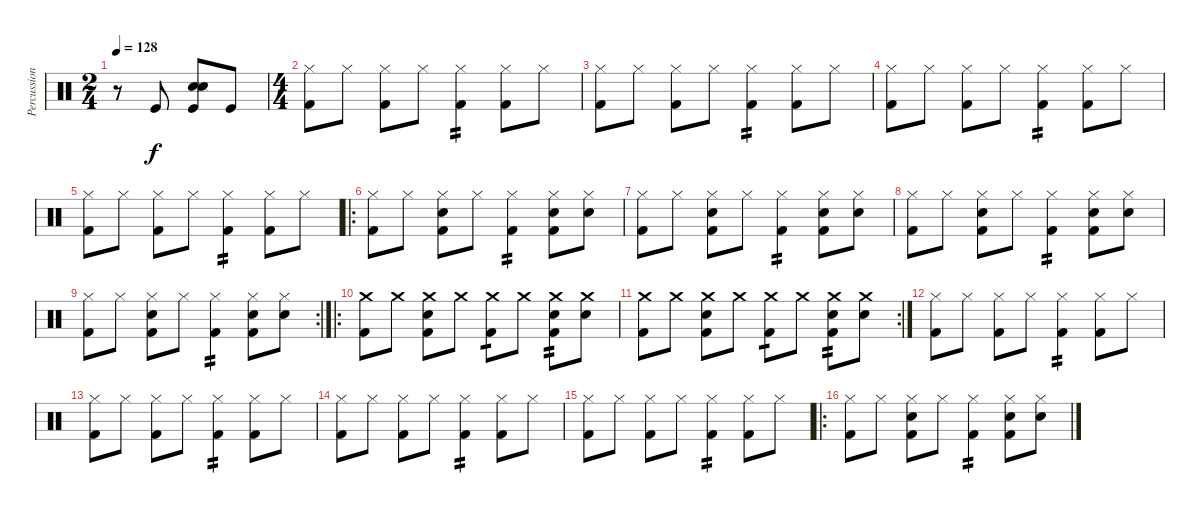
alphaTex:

\track ("Percussion" "Percussion") {instrument percussion}
\staff {score}
\articulation defaults
\ts (2 4)
\tempo 128
\clef neutral
\ks c
r.8{dy f} "Kick (hit)".8 ("Hand Clap (hit)" "Snare (hit) 2" "Snare (side stick) 3" "Kick (hit)").8 "Kick (hit)".8 |
\ts (4 4)
("Hi-Hat (closed)" "Kick (hit) 2").8 "Hi-Hat (closed)".8 ("Hi-Hat (closed)" "Kick (hit) 2").8 "Hi-Hat (closed)".8 ("Hi-Hat (closed)" "Kick (hit) 2").4{tp 2} ("Hi-Hat (closed)" "Kick (hit) 2").8 "Hi-Hat (closed)".8 |
("Hi-Hat (closed)" "Kick (hit) 2").8 "Hi-Hat (closed)".8 ("Hi-Hat (closed)" "Kick (hit) 2").8 "Hi-Hat (closed)".8 ("Hi-Hat (closed)" "Kick (hit) 2").4{tp 2} ("Hi-Hat (closed)" "Kick (hit) 2").8 "Hi-Hat (closed)".8 |
("Hi-Hat (closed)" "Kick (hit) 2").8 "Hi-Hat (closed)".8 ("Hi-Hat (closed)" "Kick (hit) 2").8 "Hi-Hat (closed)".8 ("Hi-Hat (closed)" "Kick (hit) 2").4{tp 2} ("Hi-Hat (closed)" "Kick (hit) 2").8 "Hi-Hat (closed)".8 |
("Hi-Hat (closed)" "Kick (hit) 2").8 "Hi-Hat (closed)".8 ("Hi-Hat (closed)" "Kick (hit) 2").8 "Hi-Hat (closed)".8 ("Hi-Hat (closed)" "Kick (hit) 2").4{tp 2} ("Hi-Hat (closed)" "Kick (hit) 2").8 "Hi-Hat (closed)".8 |
\ro
("Hi-Hat (closed)" "Kick (hit) 2").8 "Hi-Hat (closed)".8 ("Hi-Hat (closed)" "Snare (hit) 2" "Kick (hit) 2").8 "Hi-Hat (closed)".8 ("Hi-Hat (closed)" "Kick (hit) 2").4{tp 2} ("Hi-Hat (closed)" "Snare (hit) 2"{tr (38 16)} "Kick (hit) 2").8 ("Hi-Hat (closed)" "Snare (hit) 2").8 |
("Hi-Hat (closed)" "Kick (hit) 2").8 "Hi-Hat (closed)".8 ("Hi-Hat (closed)" "Snare (hit) 2" "Kick (hit) 2").8 "Hi-Hat (closed)".8 ("Hi-Hat (closed)" "Kick (hit) 2").4{tp 2} ("Hi-Hat (closed)" "Snare (hit) 2"{tr (38 16)} "Kick (hit) 2").8 ("Hi-Hat (closed)" "Snare (hit) 2").8 |
("Hi-Hat (closed)" "Kick (hit) 2").8 "Hi-Hat (closed)".8 ("Hi-Hat (closed)" "Snare (hit) 2" "Kick (hit) 2").8 "Hi-Hat (closed)".8 ("Hi-Hat (closed)" "Kick (hit) 2").4{tp 2} ("Hi-Hat (closed)" "Snare (hit) 2"{tr (38 16)} "Kick (hit) 2").8 ("Hi-Hat (closed)" "Snare (hit) 2").8 |
\rc 2
("Hi-Hat (closed)" "Kick (hit) 2").8 "Hi-Hat (closed)".8 ("Hi-Hat (closed)" "Snare (hit) 2" "Kick (hit) 2").8 "Hi-Hat (closed)".8 ("Hi-Hat (closed)" "Kick (hit) 2").4{tp 2} ("Hi-Hat (closed)" "Snare (hit) 2"{tr (38 16)} "Kick (hit) 2").8 ("Hi-Hat (closed)" "Snare (hit) 2").8 |
\ro
("Crash medium (hit)" "Kick (hit) 2").8 "Crash medium (hit)".8 ("Crash medium (hit)" "Snare (hit) 2" "Kick (hit) 2").8 "Crash medium (hit)".8 ("Crash medium (hit)" "Kick (hit) 2").8{tp 1} "Crash medium (hit)".8 ("Crash medium (hit)" "Snare (hit) 2" "Kick (hit) 2").8{tp 2} ("Crash medium (hit)" "Snare (hit) 2").8 |
\rc 2
("Crash medium (hit)" "Kick (hit) 2").8 "Crash medium (hit)".8 ("Crash medium (hit)" "Snare (hit) 2" "Kick (hit) 2").8 "Crash medium (hit)".8 ("Crash medium (hit)" "Kick (hit) 2").8{tp 1} "Crash medium (hit)".8 ("Crash medium (hit)" "Snare (hit) 2" "Kick (hit) 2").8{tp 2} ("Crash medium (hit)" "Snare (hit) 2").8 |
("Hi-Hat (closed)" "Kick (hit) 2").8 "Hi-Hat (closed)".8 ("Hi-Hat (closed)" "Kick (hit) 2").8 "Hi-Hat (closed)".8 ("Hi-Hat (closed)" "Kick (hit) 2").4{tp 2} ("Hi-Hat (closed)" "Kick (hit) 2").8 "Hi-Hat (closed)".8 |
("Hi-Hat (closed)" "Kick (hit) 2").8 "Hi-Hat (closed)".8 ("Hi-Hat (closed)" "Kick (hit) 2").8 "Hi-Hat (closed)".8 ("Hi-Hat (closed)" "Kick (hit) 2").4{tp 2} ("Hi-Hat (closed)" "Kick (hit) 2").8 "Hi-Hat (closed)".8 |
("Hi-Hat (closed)" "Kick (hit) 2").8 "Hi-Hat (closed)".8 ("Hi-Hat (closed)" "Kick (hit) 2").8 "Hi-Hat (closed)".8 ("Hi-Hat (closed)" "Kick (hit) 2").4{tp 2} ("Hi-Hat (closed)" "Kick (hit) 2").8 "Hi-Hat (closed)".8 |
("Hi-Hat (closed)" "Kick (hit) 2").8 "Hi-Hat (closed)".8 ("Hi-Hat (closed)" "Kick (hit) 2").8 "Hi-Hat (closed)".8 ("Hi-Hat (closed)" "Kick (hit) 2").4{tp 2} ("Hi-Hat (closed)" "Kick (hit) 2").8 "Hi-Hat (closed)".8 |
\ro
("Hi-Hat (closed)" "Kick (hit) 2").8 "Hi-Hat (closed)".8 ("Hi-Hat (closed)" "Snare (hit) 2" "Kick (hit) 2").8 "Hi-Hat (closed)".8 ("Hi-Hat (closed)" "Kick (hit) 2").4{tp 2} ("Hi-Hat (closed)" "Snare (hit) 2"{tr (38 16)} "Kick (hit) 2").8 ("Hi-Hat (closed)" "Snare (hit) 2").8
